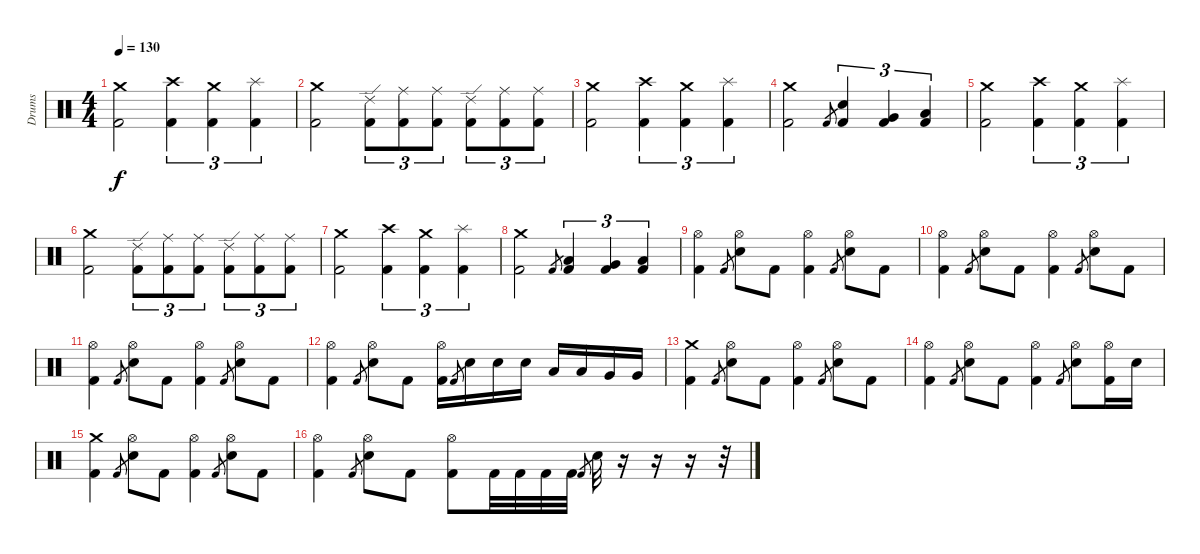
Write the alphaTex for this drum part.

\track ("Drums" "Drums") {instrument percussion}
\staff {score}
\articulation defaults
\ts (4 4)
\tempo 130
\clef neutral
\ks c
("Crash medium (hit)" "Kick (hit) 2").2{dy f} ("Crash high (hit)" "Kick (hit) 2").4{tu (3 2)} ("Crash medium (hit)" "Kick (hit) 2").4{tu (3 2)} ("Splash (hit)" "Kick (hit) 2").4{tu (3 2)} |
("Crash medium (hit)" "Kick (hit) 2").2 ("Ride (edge) 2" "Kick (hit) 2").8{tu (3 2)} ("Ride (middle)" "Kick (hit) 2").8{tu (3 2)} ("Ride (middle)" "Kick (hit) 2").8{tu (3 2)} ("Ride (edge) 2" "Kick (hit) 2").8{tu (3 2)} ("Ride (middle)" "Kick (hit) 2").8{tu (3 2)} ("Ride (middle)" "Kick (hit) 2").8{tu (3 2)} |
("Crash medium (hit)" "Kick (hit) 2").2 ("Crash high (hit)" "Kick (hit) 2").4{tu (3 2)} ("Crash medium (hit)" "Kick (hit) 2").4{tu (3 2)} ("Splash (hit)" "Kick (hit) 2").4{tu (3 2)} |
("Crash medium (hit)" "Kick (hit) 2").2 "Kick (hit) 2".8{gr} ("Electric Snare (hit)" "Kick (hit) 2").4{tu (3 2)} ("Very Low Tom (hit)" "Kick (hit) 2").4{tu (3 2)} ("Low Floor Tom (hit)" "Kick (hit) 2").4{tu (3 2)} |
("Crash medium (hit)" "Kick (hit) 2").2 ("Crash high (hit)" "Kick (hit) 2").4{tu (3 2)} ("Crash medium (hit)" "Kick (hit) 2").4{tu (3 2)} ("Splash (hit)" "Kick (hit) 2").4{tu (3 2)} |
("Crash medium (hit)" "Kick (hit) 2").2 ("Ride (edge) 2" "Kick (hit) 2").8{tu (3 2)} ("Ride (middle)" "Kick (hit) 2").8{tu (3 2)} ("Ride (middle)" "Kick (hit) 2").8{tu (3 2)} ("Ride (edge) 2" "Kick (hit) 2").8{tu (3 2)} ("Ride (middle)" "Kick (hit) 2").8{tu (3 2)} ("Ride (middle)" "Kick (hit) 2").8{tu (3 2)} |
("Crash medium (hit)" "Kick (hit) 2").2 ("Crash high (hit)" "Kick (hit) 2").4{tu (3 2)} ("Crash medium (hit)" "Kick (hit) 2").4{tu (3 2)} ("Splash (hit)" "Kick (hit) 2").4{tu (3 2)} |
("Crash medium (hit)" "Kick (hit) 2").2 "Kick (hit) 2".8{gr} ("Low Tom (hit)" "Kick (hit) 2").4{tu (3 2)} ("Very Low Tom (hit)" "Kick (hit) 2").4{tu (3 2)} ("Low Floor Tom (hit)" "Kick (hit) 2").4{tu (3 2)} |
("Hi-Hat (open)" "Kick (hit) 2").4 "Kick (hit) 2".8{gr} ("Hi-Hat (open)" "Electric Snare (hit)").8 "Kick (hit) 2".8 ("Hi-Hat (open)" "Kick (hit) 2").4 "Kick (hit) 2".8{gr} ("Hi-Hat (open)" "Electric Snare (hit)").8 "Kick (hit) 2".8 |
("Hi-Hat (open)" "Kick (hit) 2").4 "Kick (hit) 2".8{gr} ("Hi-Hat (open)" "Electric Snare (hit)").8 "Kick (hit) 2".8 ("Hi-Hat (open)" "Kick (hit) 2").4 "Kick (hit) 2".8{gr} ("Hi-Hat (open)" "Electric Snare (hit)").8 "Kick (hit) 2".8 |
("Hi-Hat (open)" "Kick (hit) 2").4 "Kick (hit) 2".8{gr} ("Hi-Hat (open)" "Electric Snare (hit)").8 "Kick (hit) 2".8 ("Hi-Hat (open)" "Kick (hit) 2").4 "Kick (hit) 2".8{gr} ("Hi-Hat (open)" "Electric Snare (hit)").8 "Kick (hit) 2".8 |
("Hi-Hat (open)" "Kick (hit) 2").4 "Kick (hit) 2".8{gr} ("Hi-Hat (open)" "Electric Snare (hit)").8 "Kick (hit) 2".8 ("Hi-Hat (open)" "Kick (hit) 2").16 "Kick (hit) 2".8{gr} "Electric Snare (hit)".16 "Electric Snare (hit)".16 "Electric Snare (hit)".16 "Low Tom (hit)".16 "Low Tom (hit)".16 "Very Low Tom (hit)".16 "Very Low Tom (hit)".16 |
("Crash medium (hit)" "Kick (hit) 2").4 "Kick (hit) 2".8{gr} ("Hi-Hat (open)" "Electric Snare (hit)").8 "Kick (hit) 2".8 ("Hi-Hat (open)" "Kick (hit) 2").4 "Kick (hit) 2".8{gr} ("Hi-Hat (open)" "Electric Snare (hit)").8 "Kick (hit) 2".8 |
("Hi-Hat (open)" "Kick (hit) 2").4 "Kick (hit) 2".8{gr} ("Hi-Hat (open)" "Electric Snare (hit)").8 "Kick (hit) 2".8 ("Hi-Hat (open)" "Kick (hit) 2").4 "Kick (hit) 2".8{gr} ("Hi-Hat (open)" "Electric Snare (hit)").8 ("Hi-Hat (open)" "Kick (hit) 2").16 "Electric Snare (hit)".16 |
("Crash medium (hit)" "Kick (hit) 2").4 "Kick (hit) 2".8{gr} ("Hi-Hat (open)" "Electric Snare (hit)").8 "Kick (hit) 2".8 ("Hi-Hat (open)" "Kick (hit) 2").4 "Kick (hit) 2".8{gr} ("Hi-Hat (open)" "Electric Snare (hit)").8 "Kick (hit) 2".8 |
("Hi-Hat (open)" "Kick (hit) 2").4 "Kick (hit) 2".8{gr} ("Hi-Hat (open)" "Electric Snare (hit)").8 "Kick (hit) 2".8 ("Hi-Hat (open)" "Kick (hit) 2").8 "Kick (hit) 2".32 "Kick (hit) 2".32 "Kick (hit) 2".32 "Kick (hit) 2".32 "Kick (hit) 2".8{gr} "Electric Snare (hit)".32 r.16 r.16 r.16 r.32
